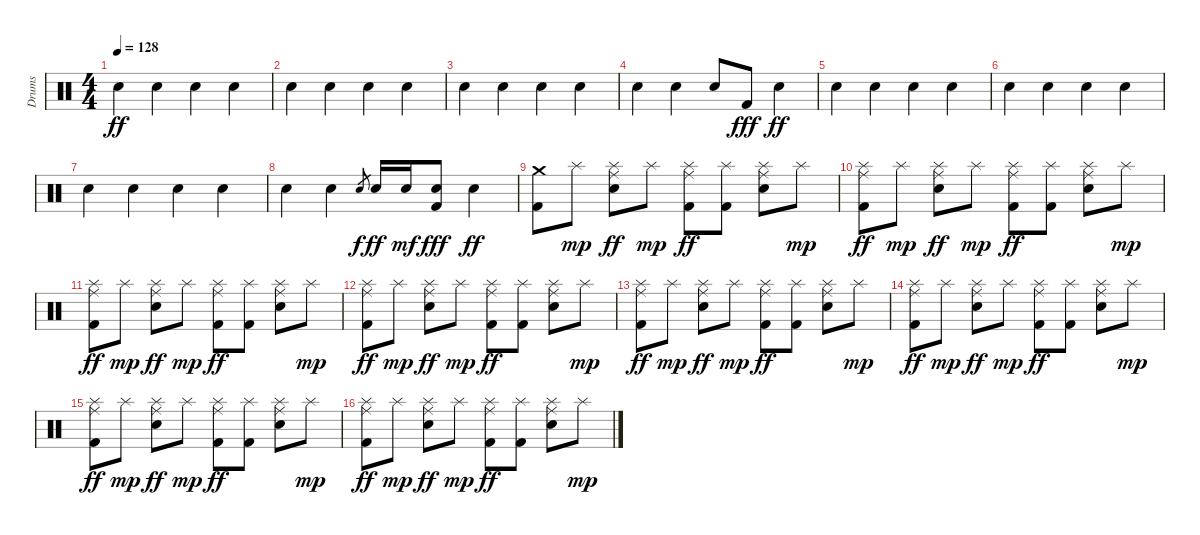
\track ("Drums" "Drums") {instrument percussion}
\staff {score}
\articulation defaults
\ts (4 4)
\tempo 128
\clef neutral
\ks c "Electric Snare (hit)".4{dy ff} "Electric Snare (hit)".4 "Electric Snare (hit)".4 "Electric Snare (hit)".4
|
"Electric Snare (hit)".4 "Electric Snare (hit)".4 "Electric Snare (hit)".4 "Electric Snare (hit)".4 |
"Electric Snare (hit)".4 "Electric Snare (hit)".4 "Electric Snare (hit)".4 "Electric Snare (hit)".4 |
"Electric Snare (hit)".4 "Electric Snare (hit)".4 "Electric Snare (hit)".8 "Kick (hit) 2".8{dy fff} "Electric Snare (hit)".4{dy ff} |
"Electric Snare (hit)".4 "Electric Snare (hit)".4 "Electric Snare (hit)".4 "Electric Snare (hit)".4 |
"Electric Snare (hit)".4 "Electric Snare (hit)".4 "Electric Snare (hit)".4 "Electric Snare (hit)".4 |
"Electric Snare (hit)".4 "Electric Snare (hit)".4 "Electric Snare (hit)".4 "Electric Snare (hit)".4 |
"Electric Snare (hit)".4 "Electric Snare (hit)".4 "Electric Snare (hit)".8{gr dy f} "Electric Snare (hit)".16{dy ff} "Electric Snare (hit)".16{dy mf} ("Electric Snare (hit)" "Kick (hit) 2").8{dy fff} "Electric Snare (hit)".4{dy ff} |
("Crash medium (hit)" "Kick (hit) 2").8 "Splash (hit)".8{dy mp} ("Ride (middle)" "Splash (hit)" "Electric Snare (hit)").8{dy ff} "Splash (hit)".8{dy mp} ("Ride (middle)" "Splash (hit)" "Kick (hit) 2").8{dy ff} ("Splash (hit)" "Kick (hit) 2").8 ("Ride (middle)" "Splash (hit)" "Electric Snare (hit)").8 "Splash (hit)".8{dy mp} |
("Ride (middle)" "Splash (hit)" "Kick (hit) 2").8{dy ff} "Splash (hit)".8{dy mp} ("Ride (middle)" "Splash (hit)" "Electric Snare (hit)").8{dy ff} "Splash (hit)".8{dy mp} ("Ride (middle)" "Splash (hit)" "Kick (hit) 2").8{dy ff} ("Splash (hit)" "Kick (hit) 2").8 ("Ride (middle)" "Splash (hit)" "Electric Snare (hit)").8 "Splash (hit)".8{dy mp} |
("Ride (middle)" "Splash (hit)" "Kick (hit) 2").8{dy ff} "Splash (hit)".8{dy mp} ("Ride (middle)" "Splash (hit)" "Electric Snare (hit)").8{dy ff} "Splash (hit)".8{dy mp} ("Ride (middle)" "Splash (hit)" "Kick (hit) 2").8{dy ff} ("Splash (hit)" "Kick (hit) 2").8 ("Ride (middle)" "Splash (hit)" "Electric Snare (hit)").8 "Splash (hit)".8{dy mp} |
("Ride (middle)" "Splash (hit)" "Kick (hit) 2").8{dy ff} "Splash (hit)".8{dy mp} ("Ride (middle)" "Splash (hit)" "Electric Snare (hit)").8{dy ff} "Splash (hit)".8{dy mp} ("Ride (middle)" "Splash (hit)" "Kick (hit) 2").8{dy ff} ("Splash (hit)" "Kick (hit) 2").8 ("Ride (middle)" "Splash (hit)" "Electric Snare (hit)").8 "Splash (hit)".8{dy mp} |
("Ride (middle)" "Splash (hit)" "Kick (hit) 2").8{dy ff} "Splash (hit)".8{dy mp} ("Ride (middle)" "Splash (hit)" "Electric Snare (hit)").8{dy ff} "Splash (hit)".8{dy mp} ("Ride (middle)" "Splash (hit)" "Kick (hit) 2").8{dy ff} ("Splash (hit)" "Kick (hit) 2").8 ("Ride (middle)" "Splash (hit)" "Electric Snare (hit)").8 "Splash (hit)".8{dy mp} |
("Ride (middle)" "Splash (hit)" "Kick (hit) 2").8{dy ff} "Splash (hit)".8{dy mp} ("Ride (middle)" "Splash (hit)" "Electric Snare (hit)").8{dy ff} "Splash (hit)".8{dy mp} ("Ride (middle)" "Splash (hit)" "Kick (hit) 2").8{dy ff} ("Splash (hit)" "Kick (hit) 2").8 ("Ride (middle)" "Splash (hit)" "Electric Snare (hit)").8 "Splash (hit)".8{dy mp} |
("Ride (middle)" "Splash (hit)" "Kick (hit) 2").8{dy ff} "Splash (hit)".8{dy mp} ("Ride (middle)" "Splash (hit)" "Electric Snare (hit)").8{dy ff} "Splash (hit)".8{dy mp} ("Ride (middle)" "Splash (hit)" "Kick (hit) 2").8{dy ff} ("Splash (hit)" "Kick (hit) 2").8 ("Ride (middle)" "Splash (hit)" "Electric Snare (hit)").8 "Splash (hit)".8{dy mp} |
("Ride (middle)" "Splash (hit)" "Kick (hit) 2").8{dy ff} "Splash (hit)".8{dy mp} ("Ride (middle)" "Splash (hit)" "Electric Snare (hit)").8{dy ff} "Splash (hit)".8{dy mp} ("Ride (middle)" "Splash (hit)" "Kick (hit) 2").8{dy ff} ("Splash (hit)" "Kick (hit) 2").8 ("Ride (middle)" "Splash (hit)" "Electric Snare (hit)").8 "Splash (hit)".8{dy mp}
